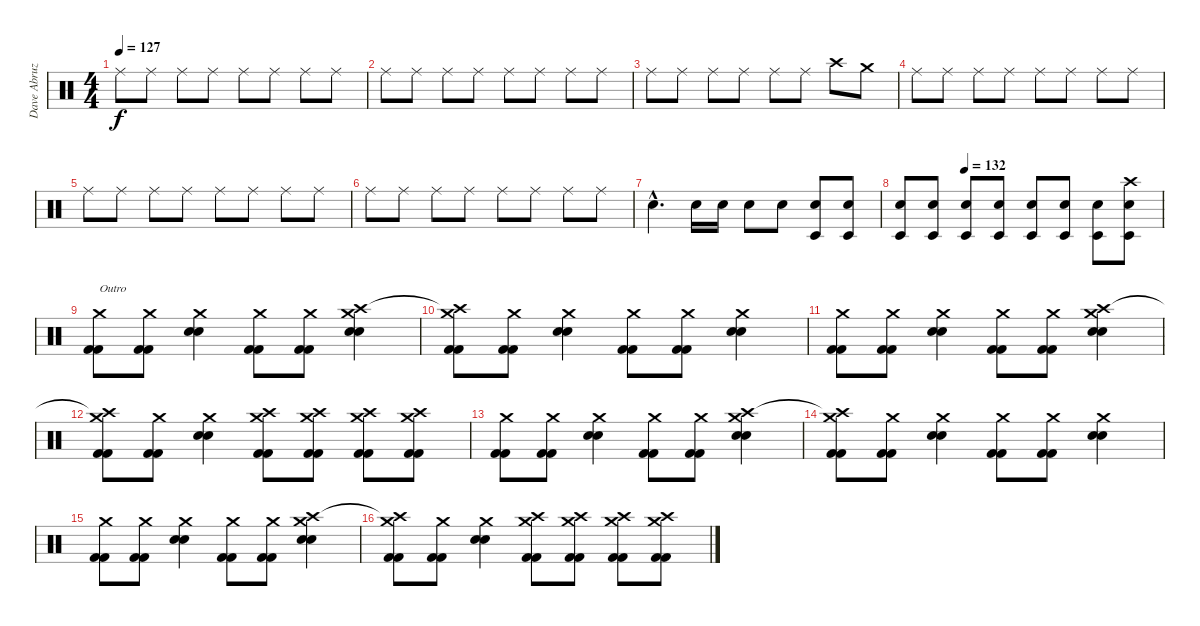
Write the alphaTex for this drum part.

\track ("Dave Abruzzesse" "Dave Abruz") {instrument percussion}
\staff {score}
\articulation defaults
\ts (4 4)
\tempo 127
\clef neutral
\ks c "Ride (middle)".8{dy f} "Ride (middle)".8 "Ride (middle)".8 "Ride (middle)".8 "Ride (middle)".8 "Ride (middle)".8 "Ride (middle)".8 "Ride (middle)".8
|
"Ride (middle)".8 "Ride (middle)".8 "Ride (middle)".8 "Ride (middle)".8 "Ride (middle)".8 "Ride (middle)".8 "Ride (middle)".8 "Ride (middle)".8 |
"Ride (middle)".8 "Ride (middle)".8 "Ride (middle)".8 "Ride (middle)".8 "Ride (middle)".8 "Ride (middle)".8 "Crash high (hit)".8 "Crash medium (hit)".8 |
"Ride (middle)".8 "Ride (middle)".8 "Ride (middle)".8 "Ride (middle)".8 "Ride (middle)".8 "Ride (middle)".8 "Ride (middle)".8 "Ride (middle)".8 |
"Ride (middle)".8 "Ride (middle)".8 "Ride (middle)".8 "Ride (middle)".8 "Ride (middle)".8 "Ride (middle)".8 "Ride (middle)".8 "Ride (middle)".8 |
"Ride (middle)".8 "Ride (middle)".8 "Ride (middle)".8 "Ride (middle)".8 "Ride (middle)".8 "Ride (middle)".8 "Ride (middle)".8 "Ride (middle)".8 |
"Snare (hit) 2"{hac}.4{d} "Snare (hit) 2".16 "Snare (hit) 2".16 "Snare (hit) 2".8 "Snare (hit) 2".8 ("Snare (hit) 2" "Timbale low (hit)").8 ("Snare (hit) 2" "Timbale low (hit)").8 |
\tempo (132 0.25)
("Electric Snare (hit)" "Timbale low (hit)").8 ("Electric Snare (hit)" "Timbale low (hit)").8 ("Electric Snare (hit)" "Timbale low (hit)").8 ("Electric Snare (hit)" "Timbale low (hit)").8 ("Electric Snare (hit)" "Timbale low (hit)").8 ("Electric Snare (hit)" "Timbale low (hit)").8 ("Electric Snare (hit)" "Timbale low (hit)").8 ("Crash high (hit)" "Electric Snare (hit)" "Timbale low (hit)").8 |
("Crash medium (hit)" "Kick (hit) 2" "Kick (hit) 2").8{txt "Outro"} ("Crash medium (hit)" "Kick (hit) 2" "Kick (hit) 2").8 ("Crash medium (hit)" "Snare (hit) 2" "Snare (hit) 2").4 ("Crash medium (hit)" "Kick (hit) 2" "Kick (hit) 2").8 ("Crash medium (hit)" "Kick (hit) 2" "Kick (hit) 2").8 ("Crash high (hit)" "Crash medium (hit)" "Snare (hit) 2" "Snare (hit) 2").4 |
("Crash high (hit)"{t} "Crash medium (hit)" "Kick (hit) 2" "Kick (hit) 2").8 ("Crash medium (hit)" "Kick (hit) 2" "Kick (hit) 2").8 ("Crash medium (hit)" "Snare (hit) 2" "Snare (hit) 2").4 ("Crash medium (hit)" "Kick (hit) 2" "Kick (hit) 2").8 ("Crash medium (hit)" "Kick (hit) 2" "Kick (hit) 2").8 ("Crash medium (hit)" "Snare (hit) 2" "Snare (hit) 2").4 |
("Crash medium (hit)" "Kick (hit) 2" "Kick (hit) 2").8 ("Crash medium (hit)" "Kick (hit) 2" "Kick (hit) 2").8 ("Crash medium (hit)" "Snare (hit) 2" "Snare (hit) 2").4 ("Crash medium (hit)" "Kick (hit) 2" "Kick (hit) 2").8 ("Crash medium (hit)" "Kick (hit) 2" "Kick (hit) 2").8 ("Crash high (hit)" "Crash medium (hit)" "Snare (hit) 2" "Snare (hit) 2").4 |
("Crash high (hit)"{t} "Crash medium (hit)" "Kick (hit) 2" "Kick (hit) 2").8 ("Crash medium (hit)" "Kick (hit) 2" "Kick (hit) 2").8 ("Crash medium (hit)" "Snare (hit) 2" "Snare (hit) 2").4 ("Crash high (hit)" "Crash medium (hit)" "Kick (hit) 2" "Kick (hit) 2").8 ("Crash high (hit)" "Crash medium (hit)" "Kick (hit) 2" "Kick (hit) 2").8 ("Crash high (hit)" "Crash medium (hit)" "Kick (hit) 2" "Kick (hit) 2").8 ("Crash high (hit)" "Crash medium (hit)" "Kick (hit) 2" "Kick (hit) 2").8 |
("Crash medium (hit)" "Kick (hit) 2" "Kick (hit) 2").8 ("Crash medium (hit)" "Kick (hit) 2" "Kick (hit) 2").8 ("Crash medium (hit)" "Snare (hit) 2" "Snare (hit) 2").4 ("Crash medium (hit)" "Kick (hit) 2" "Kick (hit) 2").8 ("Crash medium (hit)" "Kick (hit) 2" "Kick (hit) 2").8 ("Crash high (hit)" "Crash medium (hit)" "Snare (hit) 2" "Snare (hit) 2").4 |
("Crash high (hit)"{t} "Crash medium (hit)" "Kick (hit) 2" "Kick (hit) 2").8 ("Crash medium (hit)" "Kick (hit) 2" "Kick (hit) 2").8 ("Crash medium (hit)" "Snare (hit) 2" "Snare (hit) 2").4 ("Crash medium (hit)" "Kick (hit) 2" "Kick (hit) 2").8 ("Crash medium (hit)" "Kick (hit) 2" "Kick (hit) 2").8 ("Crash medium (hit)" "Snare (hit) 2" "Snare (hit) 2").4 |
("Crash medium (hit)" "Kick (hit) 2" "Kick (hit) 2").8 ("Crash medium (hit)" "Kick (hit) 2" "Kick (hit) 2").8 ("Crash medium (hit)" "Snare (hit) 2" "Snare (hit) 2").4 ("Crash medium (hit)" "Kick (hit) 2" "Kick (hit) 2").8 ("Crash medium (hit)" "Kick (hit) 2" "Kick (hit) 2").8 ("Crash high (hit)" "Crash medium (hit)" "Snare (hit) 2" "Snare (hit) 2").4 |
("Crash high (hit)"{t} "Crash medium (hit)" "Kick (hit) 2" "Kick (hit) 2").8 ("Crash medium (hit)" "Kick (hit) 2" "Kick (hit) 2").8 ("Crash medium (hit)" "Snare (hit) 2" "Snare (hit) 2").4 ("Crash high (hit)" "Crash medium (hit)" "Kick (hit) 2" "Kick (hit) 2").8 ("Crash high (hit)" "Crash medium (hit)" "Kick (hit) 2" "Kick (hit) 2").8 ("Crash high (hit)" "Crash medium (hit)" "Kick (hit) 2" "Kick (hit) 2").8 ("Crash high (hit)" "Crash medium (hit)" "Kick (hit) 2" "Kick (hit) 2").8
